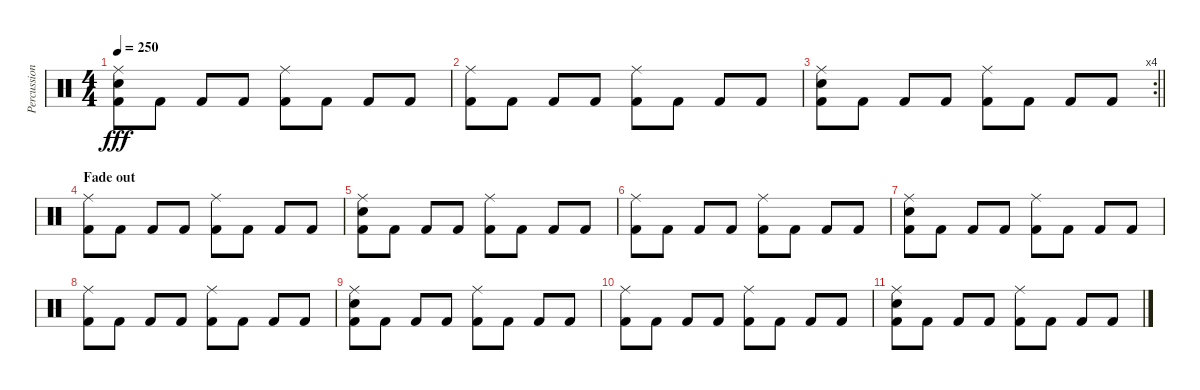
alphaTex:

\track ("Percussion" "Percussion") {instrument percussion}
\staff {score}
\articulation defaults
\ts (4 4)
\tempo 250
\clef neutral
\ks c
("Ride (middle)" "Electric Snare (hit)" "Kick (hit) 2").8{dy fff} "Kick (hit) 2".8 "Kick (hit) 2".8 "Kick (hit) 2".8 ("Ride (middle)" "Kick (hit) 2").8 "Kick (hit) 2".8 "Kick (hit) 2".8 "Kick (hit) 2".8 |
("Ride (middle)" "Kick (hit) 2").8 "Kick (hit) 2".8 "Kick (hit) 2".8 "Kick (hit) 2".8 ("Ride (middle)" "Kick (hit) 2").8 "Kick (hit) 2".8 "Kick (hit) 2".8 "Kick (hit) 2".8 |
\rc 4
\barLineRight lightlight
("Ride (middle)" "Electric Snare (hit)" "Kick (hit) 2").8 "Kick (hit) 2".8 "Kick (hit) 2".8 "Kick (hit) 2".8 ("Ride (middle)" "Kick (hit) 2").8 "Kick (hit) 2".8 "Kick (hit) 2".8 "Kick (hit) 2".8 |
\section ("" "Fade out")
("Ride (middle)" "Kick (hit) 2").8 "Kick (hit) 2".8 "Kick (hit) 2".8 "Kick (hit) 2".8 ("Ride (middle)" "Kick (hit) 2").8 "Kick (hit) 2".8 "Kick (hit) 2".8 "Kick (hit) 2".8 |
("Ride (middle)" "Electric Snare (hit)" "Kick (hit) 2").8 "Kick (hit) 2".8 "Kick (hit) 2".8 "Kick (hit) 2".8 ("Ride (middle)" "Kick (hit) 2").8 "Kick (hit) 2".8 "Kick (hit) 2".8 "Kick (hit) 2".8 |
("Ride (middle)" "Kick (hit) 2").8 "Kick (hit) 2".8 "Kick (hit) 2".8 "Kick (hit) 2".8 ("Ride (middle)" "Kick (hit) 2").8 "Kick (hit) 2".8 "Kick (hit) 2".8 "Kick (hit) 2".8 |
("Ride (middle)" "Electric Snare (hit)" "Kick (hit) 2").8 "Kick (hit) 2".8 "Kick (hit) 2".8 "Kick (hit) 2".8 ("Ride (middle)" "Kick (hit) 2").8 "Kick (hit) 2".8 "Kick (hit) 2".8 "Kick (hit) 2".8 |
("Ride (middle)" "Kick (hit) 2").8 "Kick (hit) 2".8 "Kick (hit) 2".8 "Kick (hit) 2".8 ("Ride (middle)" "Kick (hit) 2").8 "Kick (hit) 2".8 "Kick (hit) 2".8 "Kick (hit) 2".8 |
("Ride (middle)" "Electric Snare (hit)" "Kick (hit) 2").8 "Kick (hit) 2".8 "Kick (hit) 2".8 "Kick (hit) 2".8 ("Ride (middle)" "Kick (hit) 2").8 "Kick (hit) 2".8 "Kick (hit) 2".8 "Kick (hit) 2".8 |
("Ride (middle)" "Kick (hit) 2").8 "Kick (hit) 2".8 "Kick (hit) 2".8 "Kick (hit) 2".8 ("Ride (middle)" "Kick (hit) 2").8 "Kick (hit) 2".8 "Kick (hit) 2".8 "Kick (hit) 2".8 |
("Ride (middle)" "Electric Snare (hit)" "Kick (hit) 2").8 "Kick (hit) 2".8 "Kick (hit) 2".8 "Kick (hit) 2".8 ("Ride (middle)" "Kick (hit) 2").8 "Kick (hit) 2".8 "Kick (hit) 2".8 "Kick (hit) 2".8
